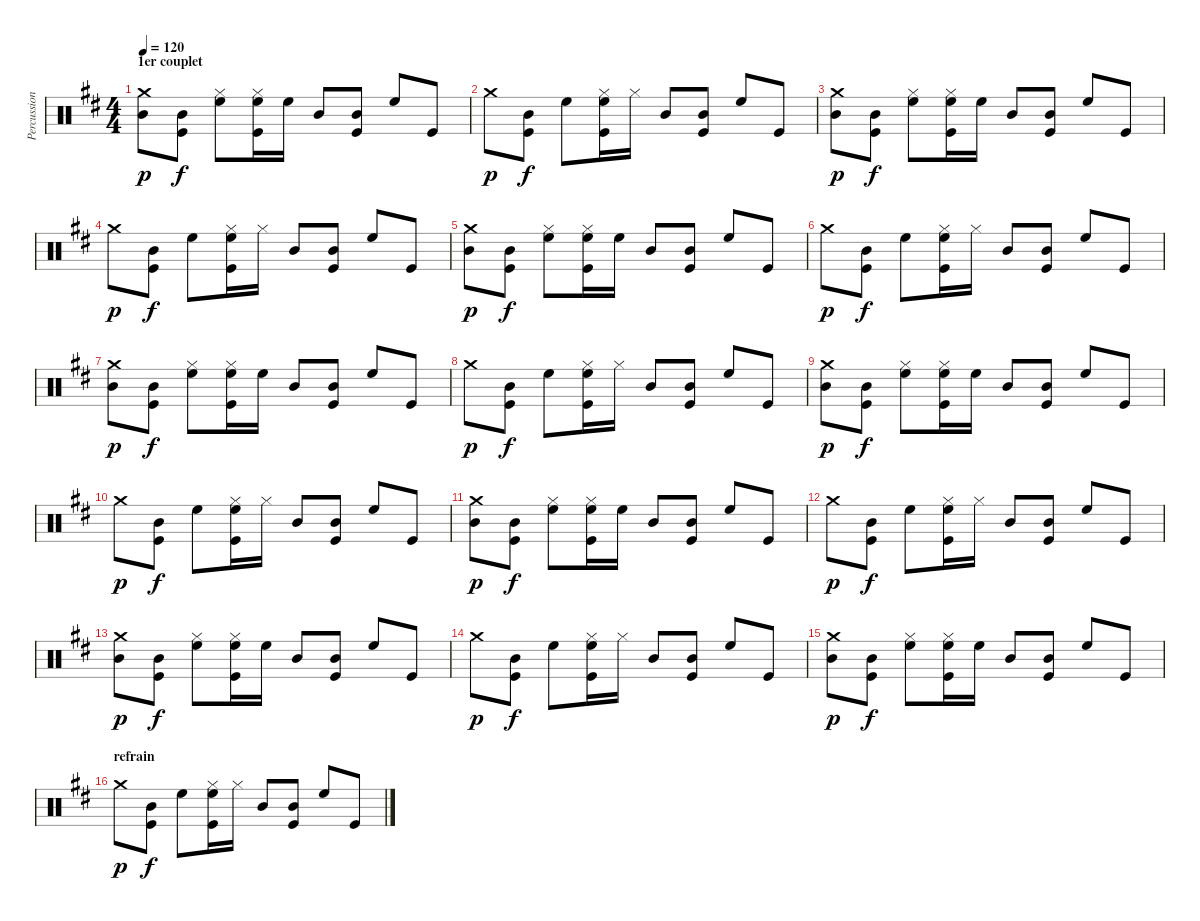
\track ("Percussions" "Percussion") {instrument percussion}
\staff {score}
\articulation defaults
\ts (4 4)
\section ("" "1er couplet")
\tempo 120
\clef neutral
\ks d
("Crash medium (hit)" "Mid Tom (hit)").8{dy p} ("Mid Tom (hit)" "Kick (hit)").8{dy f} ("Hi-Hat (closed)" "High Floor Tom (hit)").8 ("Hi-Hat (closed)" "High Floor Tom (hit)" "Kick (hit)").16 "High Floor Tom (hit)".16 "Mid Tom (hit)".8 ("Mid Tom (hit)" "Kick (hit)").8 "High Floor Tom (hit)".8 "Kick (hit)".8 |
"Crash medium (hit)".8{dy p} ("Mid Tom (hit)" "Kick (hit)").8{dy f} "High Floor Tom (hit)".8 ("Hi-Hat (closed)" "High Floor Tom (hit)" "Kick (hit)").16 "Hi-Hat (closed)".16 "Mid Tom (hit)".8 ("Mid Tom (hit)" "Kick (hit)").8 "High Floor Tom (hit)".8 "Kick (hit)".8 |
("Crash medium (hit)" "Mid Tom (hit)").8{dy p} ("Mid Tom (hit)" "Kick (hit)").8{dy f} ("Hi-Hat (closed)" "High Floor Tom (hit)").8 ("Hi-Hat (closed)" "High Floor Tom (hit)" "Kick (hit)").16 "High Floor Tom (hit)".16 "Mid Tom (hit)".8 ("Mid Tom (hit)" "Kick (hit)").8 "High Floor Tom (hit)".8 "Kick (hit)".8 |
"Crash medium (hit)".8{dy p} ("Mid Tom (hit)" "Kick (hit)").8{dy f} "High Floor Tom (hit)".8 ("Hi-Hat (closed)" "High Floor Tom (hit)" "Kick (hit)").16 "Hi-Hat (closed)".16 "Mid Tom (hit)".8 ("Mid Tom (hit)" "Kick (hit)").8 "High Floor Tom (hit)".8 "Kick (hit)".8 |
("Crash medium (hit)" "Mid Tom (hit)").8{dy p} ("Mid Tom (hit)" "Kick (hit)").8{dy f} ("Hi-Hat (closed)" "High Floor Tom (hit)").8 ("Hi-Hat (closed)" "High Floor Tom (hit)" "Kick (hit)").16 "High Floor Tom (hit)".16 "Mid Tom (hit)".8 ("Mid Tom (hit)" "Kick (hit)").8 "High Floor Tom (hit)".8 "Kick (hit)".8 |
"Crash medium (hit)".8{dy p} ("Mid Tom (hit)" "Kick (hit)").8{dy f} "High Floor Tom (hit)".8 ("Hi-Hat (closed)" "High Floor Tom (hit)" "Kick (hit)").16 "Hi-Hat (closed)".16 "Mid Tom (hit)".8 ("Mid Tom (hit)" "Kick (hit)").8 "High Floor Tom (hit)".8 "Kick (hit)".8 |
("Crash medium (hit)" "Mid Tom (hit)").8{dy p} ("Mid Tom (hit)" "Kick (hit)").8{dy f} ("Hi-Hat (closed)" "High Floor Tom (hit)").8 ("Hi-Hat (closed)" "High Floor Tom (hit)" "Kick (hit)").16 "High Floor Tom (hit)".16 "Mid Tom (hit)".8 ("Mid Tom (hit)" "Kick (hit)").8 "High Floor Tom (hit)".8 "Kick (hit)".8 |
"Crash medium (hit)".8{dy p} ("Mid Tom (hit)" "Kick (hit)").8{dy f} "High Floor Tom (hit)".8 ("Hi-Hat (closed)" "High Floor Tom (hit)" "Kick (hit)").16 "Hi-Hat (closed)".16 "Mid Tom (hit)".8 ("Mid Tom (hit)" "Kick (hit)").8 "High Floor Tom (hit)".8 "Kick (hit)".8 |
("Crash medium (hit)" "Mid Tom (hit)").8{dy p} ("Mid Tom (hit)" "Kick (hit)").8{dy f} ("Hi-Hat (closed)" "High Floor Tom (hit)").8 ("Hi-Hat (closed)" "High Floor Tom (hit)" "Kick (hit)").16 "High Floor Tom (hit)".16 "Mid Tom (hit)".8 ("Mid Tom (hit)" "Kick (hit)").8 "High Floor Tom (hit)".8 "Kick (hit)".8 |
"Crash medium (hit)".8{dy p} ("Mid Tom (hit)" "Kick (hit)").8{dy f} "High Floor Tom (hit)".8 ("Hi-Hat (closed)" "High Floor Tom (hit)" "Kick (hit)").16 "Hi-Hat (closed)".16 "Mid Tom (hit)".8 ("Mid Tom (hit)" "Kick (hit)").8 "High Floor Tom (hit)".8 "Kick (hit)".8 |
("Crash medium (hit)" "Mid Tom (hit)").8{dy p} ("Mid Tom (hit)" "Kick (hit)").8{dy f} ("Hi-Hat (closed)" "High Floor Tom (hit)").8 ("Hi-Hat (closed)" "High Floor Tom (hit)" "Kick (hit)").16 "High Floor Tom (hit)".16 "Mid Tom (hit)".8 ("Mid Tom (hit)" "Kick (hit)").8 "High Floor Tom (hit)".8 "Kick (hit)".8 |
"Crash medium (hit)".8{dy p} ("Mid Tom (hit)" "Kick (hit)").8{dy f} "High Floor Tom (hit)".8 ("Hi-Hat (closed)" "High Floor Tom (hit)" "Kick (hit)").16 "Hi-Hat (closed)".16 "Mid Tom (hit)".8 ("Mid Tom (hit)" "Kick (hit)").8 "High Floor Tom (hit)".8 "Kick (hit)".8 |
("Crash medium (hit)" "Mid Tom (hit)").8{dy p} ("Mid Tom (hit)" "Kick (hit)").8{dy f} ("Hi-Hat (closed)" "High Floor Tom (hit)").8 ("Hi-Hat (closed)" "High Floor Tom (hit)" "Kick (hit)").16 "High Floor Tom (hit)".16 "Mid Tom (hit)".8 ("Mid Tom (hit)" "Kick (hit)").8 "High Floor Tom (hit)".8 "Kick (hit)".8 |
"Crash medium (hit)".8{dy p} ("Mid Tom (hit)" "Kick (hit)").8{dy f} "High Floor Tom (hit)".8 ("Hi-Hat (closed)" "High Floor Tom (hit)" "Kick (hit)").16 "Hi-Hat (closed)".16 "Mid Tom (hit)".8 ("Mid Tom (hit)" "Kick (hit)").8 "High Floor Tom (hit)".8 "Kick (hit)".8 |
("Crash medium (hit)" "Mid Tom (hit)").8{dy p} ("Mid Tom (hit)" "Kick (hit)").8{dy f} ("Hi-Hat (closed)" "High Floor Tom (hit)").8 ("Hi-Hat (closed)" "High Floor Tom (hit)" "Kick (hit)").16 "High Floor Tom (hit)".16 "Mid Tom (hit)".8 ("Mid Tom (hit)" "Kick (hit)").8 "High Floor Tom (hit)".8 "Kick (hit)".8 |
\section ("" "refrain")
"Crash medium (hit)".8{dy p} ("Mid Tom (hit)" "Kick (hit)").8{dy f} "High Floor Tom (hit)".8 ("Hi-Hat (closed)" "High Floor Tom (hit)" "Kick (hit)").16 "Hi-Hat (closed)".16 "Mid Tom (hit)".8 ("Mid Tom (hit)" "Kick (hit)").8 "High Floor Tom (hit)".8 "Kick (hit)".8
